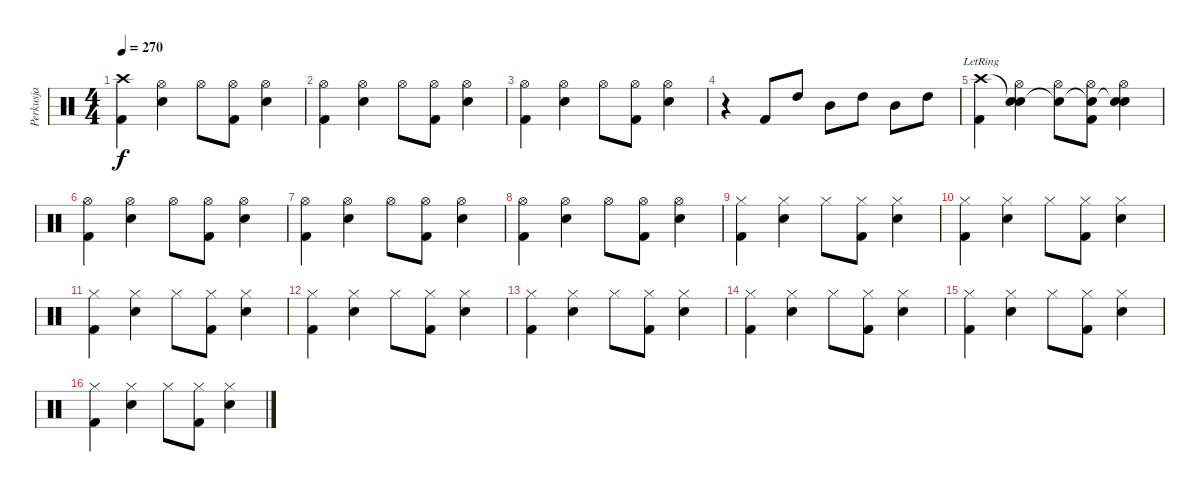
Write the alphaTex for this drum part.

\track ("Perkusja" "Perkusja") {instrument percussion}
\staff {score}
\articulation defaults
\ts (4 4)
\tempo 270
\clef neutral
\ks c
("Crash high (hit)" "Kick (hit) 2").4{dy f} ("Hi-Hat (open)" "Electric Snare (hit)").4 "Hi-Hat (open)".8 ("Hi-Hat (open)" "Kick (hit) 2").8 ("Hi-Hat (open)" "Electric Snare (hit)").4 |
("Hi-Hat (open)" "Kick (hit) 2").4 ("Hi-Hat (open)" "Electric Snare (hit)").4 "Hi-Hat (open)".8 ("Hi-Hat (open)" "Kick (hit) 2").8 ("Hi-Hat (open)" "Electric Snare (hit)").4 |
("Hi-Hat (open)" "Kick (hit) 2").4 ("Hi-Hat (open)" "Electric Snare (hit)").4 "Hi-Hat (open)".8 ("Hi-Hat (open)" "Kick (hit) 2").8 ("Hi-Hat (open)" "Electric Snare (hit)").4 |
r.4 "Kick (hit) 2".8 "High Tom (hit)".8 "Mid Tom (hit)".8 "High Tom (hit)".8 "Mid Tom (hit)".8 "High Tom (hit)".8 |
("Crash high (hit)"{lr} "Kick (hit) 2").4 ("Snare (hit)"{t} "Hi-Hat (open)" "Electric Snare (hit)").4 ("Snare (hit)"{t} "Hi-Hat (open)").8 ("Snare (hit)"{t} "Hi-Hat (open)" "Kick (hit) 2").8 ("Snare (hit)"{t} "Hi-Hat (open)" "Electric Snare (hit)").4 |
("Hi-Hat (open)" "Kick (hit) 2").4 ("Hi-Hat (open)" "Electric Snare (hit)").4 "Hi-Hat (open)".8 ("Hi-Hat (open)" "Kick (hit) 2").8 ("Hi-Hat (open)" "Electric Snare (hit)").4 |
("Hi-Hat (open)" "Kick (hit) 2").4 ("Hi-Hat (open)" "Electric Snare (hit)").4 "Hi-Hat (open)".8 ("Hi-Hat (open)" "Kick (hit) 2").8 ("Hi-Hat (open)" "Electric Snare (hit)").4 |
("Hi-Hat (open)" "Kick (hit) 2").4 ("Hi-Hat (open)" "Electric Snare (hit)").4 "Hi-Hat (open)".8 ("Hi-Hat (open)" "Kick (hit) 2").8 ("Hi-Hat (open)" "Electric Snare (hit)").4 |
("Hi-Hat (closed)" "Kick (hit) 2").4 ("Hi-Hat (closed)" "Electric Snare (hit)").4 "Hi-Hat (closed)".8 ("Hi-Hat (closed)" "Kick (hit) 2").8 ("Hi-Hat (closed)" "Electric Snare (hit)").4 |
("Hi-Hat (closed)" "Kick (hit) 2").4 ("Hi-Hat (closed)" "Electric Snare (hit)").4 "Hi-Hat (closed)".8 ("Hi-Hat (closed)" "Kick (hit) 2").8 ("Hi-Hat (closed)" "Electric Snare (hit)").4 |
("Hi-Hat (closed)" "Kick (hit) 2").4 ("Hi-Hat (closed)" "Electric Snare (hit)").4 "Hi-Hat (closed)".8 ("Hi-Hat (closed)" "Kick (hit) 2").8 ("Hi-Hat (closed)" "Electric Snare (hit)").4 |
("Hi-Hat (closed)" "Kick (hit) 2").4 ("Hi-Hat (closed)" "Electric Snare (hit)").4 "Hi-Hat (closed)".8 ("Hi-Hat (closed)" "Kick (hit) 2").8 ("Hi-Hat (closed)" "Electric Snare (hit)").4 |
("Hi-Hat (closed)" "Kick (hit) 2").4 ("Hi-Hat (closed)" "Electric Snare (hit)").4 "Hi-Hat (closed)".8 ("Hi-Hat (closed)" "Kick (hit) 2").8 ("Hi-Hat (closed)" "Electric Snare (hit)").4 |
("Hi-Hat (closed)" "Kick (hit) 2").4 ("Hi-Hat (closed)" "Electric Snare (hit)").4 "Hi-Hat (closed)".8 ("Hi-Hat (closed)" "Kick (hit) 2").8 ("Hi-Hat (closed)" "Electric Snare (hit)").4 |
("Hi-Hat (closed)" "Kick (hit) 2").4 ("Hi-Hat (closed)" "Electric Snare (hit)").4 "Hi-Hat (closed)".8 ("Hi-Hat (closed)" "Kick (hit) 2").8 ("Hi-Hat (closed)" "Electric Snare (hit)").4 |
("Hi-Hat (closed)" "Kick (hit) 2").4 ("Hi-Hat (closed)" "Electric Snare (hit)").4 "Hi-Hat (closed)".8 ("Hi-Hat (closed)" "Kick (hit) 2").8 ("Hi-Hat (closed)" "Electric Snare (hit)").4
